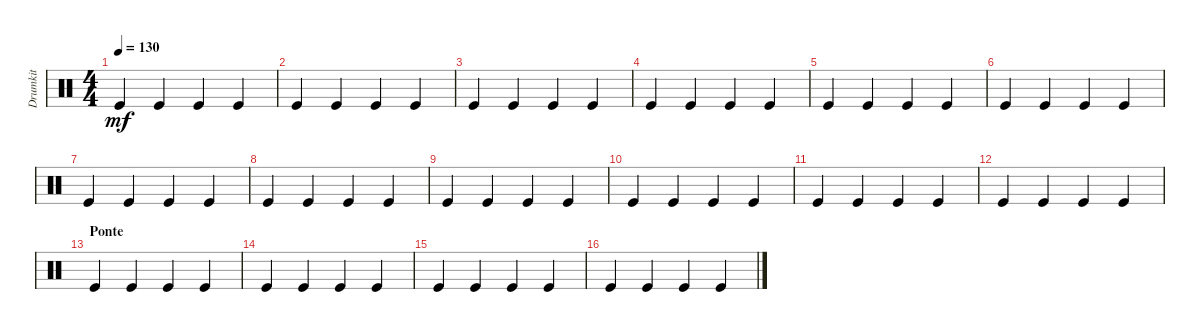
\track ("Drumkit" "Drumkit") {instrument percussion}
\staff {score}
\articulation defaults
\ts (4 4)
\tempo 130
\clef neutral
\ks c "Kick (hit)".4{dy mf} "Kick (hit)".4 "Kick (hit)".4 "Kick (hit)".4
|
"Kick (hit)".4 "Kick (hit)".4 "Kick (hit)".4 "Kick (hit)".4 |
"Kick (hit)".4 "Kick (hit)".4 "Kick (hit)".4 "Kick (hit)".4 |
"Kick (hit)".4 "Kick (hit)".4 "Kick (hit)".4 "Kick (hit)".4 |
"Kick (hit)".4 "Kick (hit)".4 "Kick (hit)".4 "Kick (hit)".4 |
"Kick (hit)".4 "Kick (hit)".4 "Kick (hit)".4 "Kick (hit)".4 |
"Kick (hit)".4 "Kick (hit)".4 "Kick (hit)".4 "Kick (hit)".4 |
"Kick (hit)".4 "Kick (hit)".4 "Kick (hit)".4 "Kick (hit)".4 |
"Kick (hit)".4 "Kick (hit)".4 "Kick (hit)".4 "Kick (hit)".4 |
"Kick (hit)".4 "Kick (hit)".4 "Kick (hit)".4 "Kick (hit)".4 |
"Kick (hit)".4 "Kick (hit)".4 "Kick (hit)".4 "Kick (hit)".4 |
"Kick (hit)".4 "Kick (hit)".4 "Kick (hit)".4 "Kick (hit)".4 |
\section ("" "Ponte")
"Kick (hit)".4 "Kick (hit)".4 "Kick (hit)".4 "Kick (hit)".4 |
"Kick (hit)".4 "Kick (hit)".4 "Kick (hit)".4 "Kick (hit)".4 |
"Kick (hit)".4 "Kick (hit)".4 "Kick (hit)".4 "Kick (hit)".4 |
"Kick (hit)".4 "Kick (hit)".4 "Kick (hit)".4 "Kick (hit)".4
